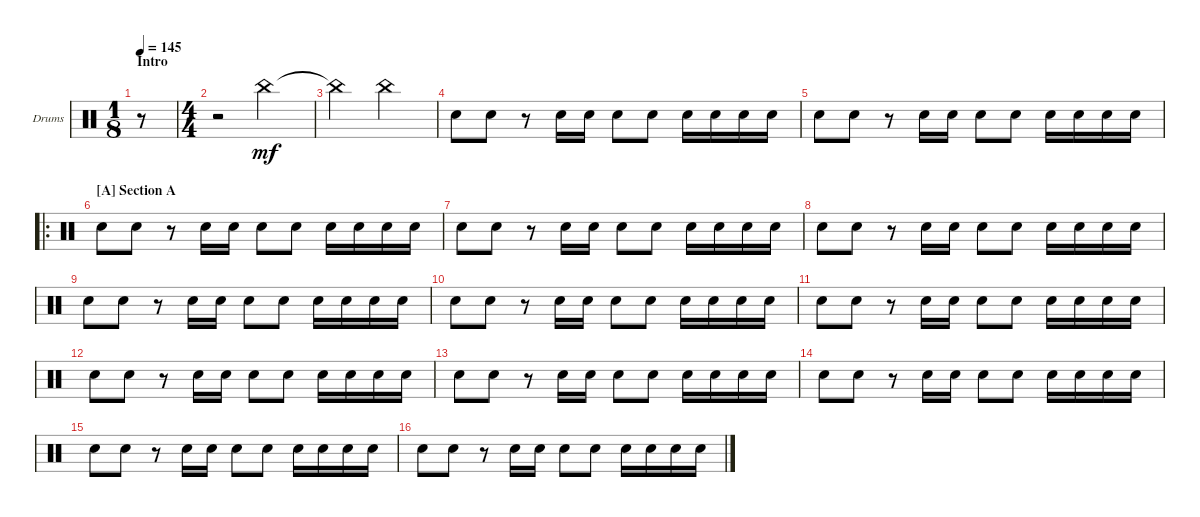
\defaultSystemsLayout 4
\bracketExtendMode groupsimilarinstruments
\firstSystemTrackNameOrientation horizontal
\otherSystemsTrackNameOrientation horizontal
\track ("Drumkit" "Drums") {instrument percussion}
\staff {score}
\articulation defaults
\ts (1 8)
\section ("" "Intro")
\tempo 145
\clef neutral
\scale
0.390805
\ks c
r.8{dy mf} |
\ts (4 4)
\scale
0.390805 r.2 "China (hit)".2 |
\scale
0.218391 "China (hit)"{t}.2 "China (hit)".2 |
\scale
0.333333 "Snare (hit) 2".8 "Snare (hit) 2".8 r.8 "Snare (hit) 2".16 "Snare (hit) 2".16 "Snare (hit) 2".8 "Snare (hit) 2".8 "Snare (hit) 2".16 "Snare (hit) 2".16 "Snare (hit) 2".16 "Snare (hit) 2".16 |
\scale
0.333333 "Snare (hit) 2".8 "Snare (hit) 2".8 r.8 "Snare (hit) 2".16 "Snare (hit) 2".16 "Snare (hit) 2".8 "Snare (hit) 2".8 "Snare (hit) 2".16 "Snare (hit) 2".16 "Snare (hit) 2".16 "Snare (hit) 2".16 |
\ro
\section ("A" "Section A")
\scale
0.333333 "Snare (hit) 2".8 "Snare (hit) 2".8 r.8 "Snare (hit) 2".16 "Snare (hit) 2".16 "Snare (hit) 2".8 "Snare (hit) 2".8 "Snare (hit) 2".16 "Snare (hit) 2".16 "Snare (hit) 2".16 "Snare (hit) 2".16 |
\scale
0.333333 "Snare (hit) 2".8 "Snare (hit) 2".8 r.8 "Snare (hit) 2".16 "Snare (hit) 2".16 "Snare (hit) 2".8 "Snare (hit) 2".8 "Snare (hit) 2".16 "Snare (hit) 2".16 "Snare (hit) 2".16 "Snare (hit) 2".16 |
\scale
0.333333 "Snare (hit) 2".8 "Snare (hit) 2".8 r.8 "Snare (hit) 2".16 "Snare (hit) 2".16 "Snare (hit) 2".8 "Snare (hit) 2".8 "Snare (hit) 2".16 "Snare (hit) 2".16 "Snare (hit) 2".16 "Snare (hit) 2".16 |
\scale
0.333333 "Snare (hit) 2".8 "Snare (hit) 2".8 r.8 "Snare (hit) 2".16 "Snare (hit) 2".16 "Snare (hit) 2".8 "Snare (hit) 2".8 "Snare (hit) 2".16 "Snare (hit) 2".16 "Snare (hit) 2".16 "Snare (hit) 2".16 |
\scale
0.333333 "Snare (hit) 2".8 "Snare (hit) 2".8 r.8 "Snare (hit) 2".16 "Snare (hit) 2".16 "Snare (hit) 2".8 "Snare (hit) 2".8 "Snare (hit) 2".16 "Snare (hit) 2".16 "Snare (hit) 2".16 "Snare (hit) 2".16 |
\scale
0.333333 "Snare (hit) 2".8 "Snare (hit) 2".8 r.8 "Snare (hit) 2".16 "Snare (hit) 2".16 "Snare (hit) 2".8 "Snare (hit) 2".8 "Snare (hit) 2".16 "Snare (hit) 2".16 "Snare (hit) 2".16 "Snare (hit) 2".16 |
\scale
0.333333 "Snare (hit) 2".8 "Snare (hit) 2".8 r.8 "Snare (hit) 2".16 "Snare (hit) 2".16 "Snare (hit) 2".8 "Snare (hit) 2".8 "Snare (hit) 2".16 "Snare (hit) 2".16 "Snare (hit) 2".16 "Snare (hit) 2".16 |
\scale
0.333333 "Snare (hit) 2".8 "Snare (hit) 2".8 r.8 "Snare (hit) 2".16 "Snare (hit) 2".16 "Snare (hit) 2".8 "Snare (hit) 2".8 "Snare (hit) 2".16 "Snare (hit) 2".16 "Snare (hit) 2".16 "Snare (hit) 2".16 |
\scale
0.333333 "Snare (hit) 2".8 "Snare (hit) 2".8 r.8 "Snare (hit) 2".16 "Snare (hit) 2".16 "Snare (hit) 2".8 "Snare (hit) 2".8 "Snare (hit) 2".16 "Snare (hit) 2".16 "Snare (hit) 2".16 "Snare (hit) 2".16 |
\scale
0.333333 "Snare (hit) 2".8 "Snare (hit) 2".8 r.8 "Snare (hit) 2".16 "Snare (hit) 2".16 "Snare (hit) 2".8 "Snare (hit) 2".8 "Snare (hit) 2".16 "Snare (hit) 2".16 "Snare (hit) 2".16 "Snare (hit) 2".16 |
\scale
0.333333 "Snare (hit) 2".8 "Snare (hit) 2".8 r.8 "Snare (hit) 2".16 "Snare (hit) 2".16 "Snare (hit) 2".8 "Snare (hit) 2".8 "Snare (hit) 2".16 "Snare (hit) 2".16 "Snare (hit) 2".16 "Snare (hit) 2".16
